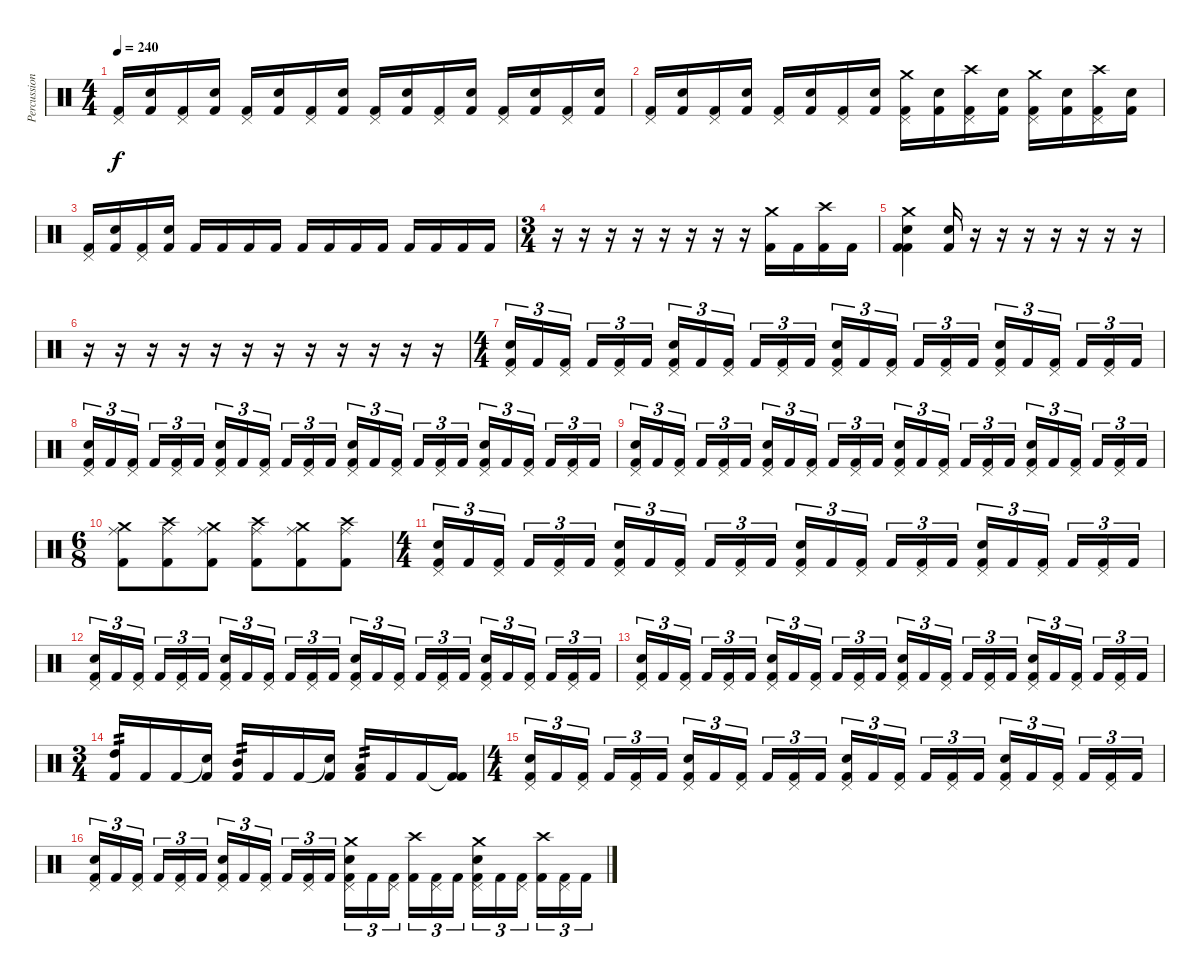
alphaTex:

\track ("Percussions" "Percussion") {instrument percussion}
\staff {score}
\articulation defaults
\ts (4 4)
\tempo 240
\clef neutral
\ks c
("Pedal Hi-Hat (hit)" "Kick (hit) 2").16{dy f} ("Snare (hit) 2" "Kick (hit) 2").16 ("Pedal Hi-Hat (hit)" "Kick (hit) 2").16 ("Snare (hit) 2" "Kick (hit) 2").16 ("Pedal Hi-Hat (hit)" "Kick (hit) 2").16 ("Snare (hit) 2" "Kick (hit) 2").16 ("Pedal Hi-Hat (hit)" "Kick (hit) 2").16 ("Snare (hit) 2" "Kick (hit) 2").16 ("Pedal Hi-Hat (hit)" "Kick (hit) 2").16 ("Snare (hit) 2" "Kick (hit) 2").16 ("Pedal Hi-Hat (hit)" "Kick (hit) 2").16 ("Snare (hit) 2" "Kick (hit) 2").16 ("Pedal Hi-Hat (hit)" "Kick (hit) 2").16 ("Snare (hit) 2" "Kick (hit) 2").16 ("Pedal Hi-Hat (hit)" "Kick (hit) 2").16 ("Snare (hit) 2" "Kick (hit) 2").16 |
("Pedal Hi-Hat (hit)" "Kick (hit) 2").16 ("Snare (hit) 2" "Kick (hit) 2").16 ("Pedal Hi-Hat (hit)" "Kick (hit) 2").16 ("Snare (hit) 2" "Kick (hit) 2").16 ("Pedal Hi-Hat (hit)" "Kick (hit) 2").16 ("Snare (hit) 2" "Kick (hit) 2").16 ("Pedal Hi-Hat (hit)" "Kick (hit) 2").16 ("Snare (hit) 2" "Kick (hit) 2").16 ("Crash medium (hit)" "Pedal Hi-Hat (hit)" "Kick (hit) 2").16 ("Snare (hit) 2" "Kick (hit) 2").16 ("Crash high (hit)" "Pedal Hi-Hat (hit)" "Kick (hit) 2").16 ("Snare (hit) 2" "Kick (hit) 2").16 ("Crash medium (hit)" "Pedal Hi-Hat (hit)" "Kick (hit) 2").16 ("Snare (hit) 2" "Kick (hit) 2").16 ("Crash high (hit)" "Pedal Hi-Hat (hit)" "Kick (hit) 2").16 ("Snare (hit) 2" "Kick (hit) 2").16 |
("Pedal Hi-Hat (hit)" "Kick (hit) 2").16 ("Snare (hit) 2" "Kick (hit) 2").16 ("Pedal Hi-Hat (hit)" "Kick (hit) 2").16 ("Snare (hit) 2" "Kick (hit) 2").16 "Kick (hit) 2".16 "Kick (hit) 2".16 "Kick (hit) 2".16 "Kick (hit) 2".16 "Kick (hit) 2".16 "Kick (hit) 2".16 "Kick (hit) 2".16 "Kick (hit) 2".16 "Kick (hit) 2".16 "Kick (hit) 2".16 "Kick (hit) 2".16 "Kick (hit) 2".16 |
\ts (3 4)
r.16 r.16 r.16 r.16 r.16 r.16 r.16 r.16 ("Crash medium (hit)" "Kick (hit) 2").16 "Kick (hit) 2".16 ("Crash high (hit)" "Kick (hit) 2").16 "Kick (hit) 2".16 |
("Crash medium (hit)" "Snare (hit) 2" "Kick (hit) 2" "Kick (hit) 2").4 ("Snare (hit) 2" "Kick (hit) 2").16 r.16 r.16 r.16 r.16 r.16 r.16 r.16 |
r.16 r.16 r.16 r.16 r.16 r.16 r.16 r.16 r.16 r.16 r.16 r.16 |
\ts (4 4)
("Snare (hit) 2" "Pedal Hi-Hat (hit)" "Kick (hit) 2").16{tu (3 2)} "Kick (hit) 2".16{tu (3 2)} ("Pedal Hi-Hat (hit)" "Kick (hit) 2").16{tu (3 2)} "Kick (hit) 2".16{tu (3 2)} ("Pedal Hi-Hat (hit)" "Kick (hit) 2").16{tu (3 2)} "Kick (hit) 2".16{tu (3 2)} ("Snare (hit) 2" "Pedal Hi-Hat (hit)" "Kick (hit) 2").16{tu (3 2)} "Kick (hit) 2".16{tu (3 2)} ("Pedal Hi-Hat (hit)" "Kick (hit) 2").16{tu (3 2)} "Kick (hit) 2".16{tu (3 2)} ("Pedal Hi-Hat (hit)" "Kick (hit) 2").16{tu (3 2)} "Kick (hit) 2".16{tu (3 2)} ("Snare (hit) 2" "Pedal Hi-Hat (hit)" "Kick (hit) 2").16{tu (3 2)} "Kick (hit) 2".16{tu (3 2)} ("Pedal Hi-Hat (hit)" "Kick (hit) 2").16{tu (3 2)} "Kick (hit) 2".16{tu (3 2)} ("Pedal Hi-Hat (hit)" "Kick (hit) 2").16{tu (3 2)} "Kick (hit) 2".16{tu (3 2)} ("Snare (hit) 2" "Pedal Hi-Hat (hit)" "Kick (hit) 2").16{tu (3 2)} "Kick (hit) 2".16{tu (3 2)} ("Pedal Hi-Hat (hit)" "Kick (hit) 2").16{tu (3 2)} "Kick (hit) 2".16{tu (3 2)} ("Pedal Hi-Hat (hit)" "Kick (hit) 2").16{tu (3 2)} "Kick (hit) 2".16{tu (3 2)} |
("Snare (hit) 2" "Pedal Hi-Hat (hit)" "Kick (hit) 2").16{tu (3 2)} "Kick (hit) 2".16{tu (3 2)} ("Pedal Hi-Hat (hit)" "Kick (hit) 2").16{tu (3 2)} "Kick (hit) 2".16{tu (3 2)} ("Pedal Hi-Hat (hit)" "Kick (hit) 2").16{tu (3 2)} "Kick (hit) 2".16{tu (3 2)} ("Snare (hit) 2" "Pedal Hi-Hat (hit)" "Kick (hit) 2").16{tu (3 2)} "Kick (hit) 2".16{tu (3 2)} ("Pedal Hi-Hat (hit)" "Kick (hit) 2").16{tu (3 2)} "Kick (hit) 2".16{tu (3 2)} ("Pedal Hi-Hat (hit)" "Kick (hit) 2").16{tu (3 2)} "Kick (hit) 2".16{tu (3 2)} ("Snare (hit) 2" "Pedal Hi-Hat (hit)" "Kick (hit) 2").16{tu (3 2)} "Kick (hit) 2".16{tu (3 2)} ("Pedal Hi-Hat (hit)" "Kick (hit) 2").16{tu (3 2)} "Kick (hit) 2".16{tu (3 2)} ("Pedal Hi-Hat (hit)" "Kick (hit) 2").16{tu (3 2)} "Kick (hit) 2".16{tu (3 2)} ("Snare (hit) 2" "Pedal Hi-Hat (hit)" "Kick (hit) 2").16{tu (3 2)} "Kick (hit) 2".16{tu (3 2)} ("Pedal Hi-Hat (hit)" "Kick (hit) 2").16{tu (3 2)} "Kick (hit) 2".16{tu (3 2)} ("Pedal Hi-Hat (hit)" "Kick (hit) 2").16{tu (3 2)} "Kick (hit) 2".16{tu (3 2)} |
("Snare (hit) 2" "Pedal Hi-Hat (hit)" "Kick (hit) 2").16{tu (3 2)} "Kick (hit) 2".16{tu (3 2)} ("Pedal Hi-Hat (hit)" "Kick (hit) 2").16{tu (3 2)} "Kick (hit) 2".16{tu (3 2)} ("Pedal Hi-Hat (hit)" "Kick (hit) 2").16{tu (3 2)} "Kick (hit) 2".16{tu (3 2)} ("Snare (hit) 2" "Pedal Hi-Hat (hit)" "Kick (hit) 2").16{tu (3 2)} "Kick (hit) 2".16{tu (3 2)} ("Pedal Hi-Hat (hit)" "Kick (hit) 2").16{tu (3 2)} "Kick (hit) 2".16{tu (3 2)} ("Pedal Hi-Hat (hit)" "Kick (hit) 2").16{tu (3 2)} "Kick (hit) 2".16{tu (3 2)} ("Snare (hit) 2" "Pedal Hi-Hat (hit)" "Kick (hit) 2").16{tu (3 2)} "Kick (hit) 2".16{tu (3 2)} ("Pedal Hi-Hat (hit)" "Kick (hit) 2").16{tu (3 2)} "Kick (hit) 2".16{tu (3 2)} ("Pedal Hi-Hat (hit)" "Kick (hit) 2").16{tu (3 2)} "Kick (hit) 2".16{tu (3 2)} ("Snare (hit) 2" "Pedal Hi-Hat (hit)" "Kick (hit) 2").16{tu (3 2)} "Kick (hit) 2".16{tu (3 2)} ("Pedal Hi-Hat (hit)" "Kick (hit) 2").16{tu (3 2)} "Kick (hit) 2".16{tu (3 2)} ("Pedal Hi-Hat (hit)" "Kick (hit) 2").16{tu (3 2)} "Kick (hit) 2".16{tu (3 2)} |
\ts (6 8)
("Ride (middle)" "Crash medium (hit)" "Kick (hit) 2").8 ("Ride (middle)" "Crash high (hit)" "Kick (hit) 2").8 ("Ride (middle)" "Crash medium (hit)" "Kick (hit) 2").8 ("Ride (middle)" "Crash high (hit)" "Kick (hit) 2").8 ("Ride (middle)" "Crash medium (hit)" "Kick (hit) 2").8 ("Ride (middle)" "Crash high (hit)" "Kick (hit) 2").8 |
\ts (4 4)
("Snare (hit) 2" "Pedal Hi-Hat (hit)" "Kick (hit) 2").16{tu (3 2)} "Kick (hit) 2".16{tu (3 2)} ("Pedal Hi-Hat (hit)" "Kick (hit) 2").16{tu (3 2)} "Kick (hit) 2".16{tu (3 2)} ("Pedal Hi-Hat (hit)" "Kick (hit) 2").16{tu (3 2)} "Kick (hit) 2".16{tu (3 2)} ("Snare (hit) 2" "Pedal Hi-Hat (hit)" "Kick (hit) 2").16{tu (3 2)} "Kick (hit) 2".16{tu (3 2)} ("Pedal Hi-Hat (hit)" "Kick (hit) 2").16{tu (3 2)} "Kick (hit) 2".16{tu (3 2)} ("Pedal Hi-Hat (hit)" "Kick (hit) 2").16{tu (3 2)} "Kick (hit) 2".16{tu (3 2)} ("Snare (hit) 2" "Pedal Hi-Hat (hit)" "Kick (hit) 2").16{tu (3 2)} "Kick (hit) 2".16{tu (3 2)} ("Pedal Hi-Hat (hit)" "Kick (hit) 2").16{tu (3 2)} "Kick (hit) 2".16{tu (3 2)} ("Pedal Hi-Hat (hit)" "Kick (hit) 2").16{tu (3 2)} "Kick (hit) 2".16{tu (3 2)} ("Snare (hit) 2" "Pedal Hi-Hat (hit)" "Kick (hit) 2").16{tu (3 2)} "Kick (hit) 2".16{tu (3 2)} ("Pedal Hi-Hat (hit)" "Kick (hit) 2").16{tu (3 2)} "Kick (hit) 2".16{tu (3 2)} ("Pedal Hi-Hat (hit)" "Kick (hit) 2").16{tu (3 2)} "Kick (hit) 2".16{tu (3 2)} |
("Snare (hit) 2" "Pedal Hi-Hat (hit)" "Kick (hit) 2").16{tu (3 2)} "Kick (hit) 2".16{tu (3 2)} ("Pedal Hi-Hat (hit)" "Kick (hit) 2").16{tu (3 2)} "Kick (hit) 2".16{tu (3 2)} ("Pedal Hi-Hat (hit)" "Kick (hit) 2").16{tu (3 2)} "Kick (hit) 2".16{tu (3 2)} ("Snare (hit) 2" "Pedal Hi-Hat (hit)" "Kick (hit) 2").16{tu (3 2)} "Kick (hit) 2".16{tu (3 2)} ("Pedal Hi-Hat (hit)" "Kick (hit) 2").16{tu (3 2)} "Kick (hit) 2".16{tu (3 2)} ("Pedal Hi-Hat (hit)" "Kick (hit) 2").16{tu (3 2)} "Kick (hit) 2".16{tu (3 2)} ("Snare (hit) 2" "Pedal Hi-Hat (hit)" "Kick (hit) 2").16{tu (3 2)} "Kick (hit) 2".16{tu (3 2)} ("Pedal Hi-Hat (hit)" "Kick (hit) 2").16{tu (3 2)} "Kick (hit) 2".16{tu (3 2)} ("Pedal Hi-Hat (hit)" "Kick (hit) 2").16{tu (3 2)} "Kick (hit) 2".16{tu (3 2)} ("Snare (hit) 2" "Pedal Hi-Hat (hit)" "Kick (hit) 2").16{tu (3 2)} "Kick (hit) 2".16{tu (3 2)} ("Pedal Hi-Hat (hit)" "Kick (hit) 2").16{tu (3 2)} "Kick (hit) 2".16{tu (3 2)} ("Pedal Hi-Hat (hit)" "Kick (hit) 2").16{tu (3 2)} "Kick (hit) 2".16{tu (3 2)} |
("Snare (hit) 2" "Pedal Hi-Hat (hit)" "Kick (hit) 2").16{tu (3 2)} "Kick (hit) 2".16{tu (3 2)} ("Pedal Hi-Hat (hit)" "Kick (hit) 2").16{tu (3 2)} "Kick (hit) 2".16{tu (3 2)} ("Pedal Hi-Hat (hit)" "Kick (hit) 2").16{tu (3 2)} "Kick (hit) 2".16{tu (3 2)} ("Snare (hit) 2" "Pedal Hi-Hat (hit)" "Kick (hit) 2").16{tu (3 2)} "Kick (hit) 2".16{tu (3 2)} ("Pedal Hi-Hat (hit)" "Kick (hit) 2").16{tu (3 2)} "Kick (hit) 2".16{tu (3 2)} ("Pedal Hi-Hat (hit)" "Kick (hit) 2").16{tu (3 2)} "Kick (hit) 2".16{tu (3 2)} ("Snare (hit) 2" "Pedal Hi-Hat (hit)" "Kick (hit) 2").16{tu (3 2)} "Kick (hit) 2".16{tu (3 2)} ("Pedal Hi-Hat (hit)" "Kick (hit) 2").16{tu (3 2)} "Kick (hit) 2".16{tu (3 2)} ("Pedal Hi-Hat (hit)" "Kick (hit) 2").16{tu (3 2)} "Kick (hit) 2".16{tu (3 2)} ("Snare (hit) 2" "Pedal Hi-Hat (hit)" "Kick (hit) 2").16{tu (3 2)} "Kick (hit) 2".16{tu (3 2)} ("Pedal Hi-Hat (hit)" "Kick (hit) 2").16{tu (3 2)} "Kick (hit) 2".16{tu (3 2)} ("Pedal Hi-Hat (hit)" "Kick (hit) 2").16{tu (3 2)} "Kick (hit) 2".16{tu (3 2)} |
\ts (3 4)
("High Tom (hit)" "Kick (hit) 2").16{tp 2} "Kick (hit) 2".16 "Kick (hit) 2".16 ("Snare (hit)"{t} "Kick (hit) 2").16 ("Mid Tom (hit)" "Kick (hit) 2").16{tp 2} "Kick (hit) 2".16 "Kick (hit) 2".16 ("Snare (hit)"{t} "Kick (hit) 2").16 ("Low Tom (hit)" "Kick (hit) 2").16{tp 2} "Kick (hit) 2".16 "Kick (hit) 2".16 ("Kick (hit) 2"{t} "Kick (hit) 2").16 |
\ts (4 4)
("Snare (hit) 2" "Pedal Hi-Hat (hit)" "Kick (hit) 2").16{tu (3 2)} "Kick (hit) 2".16{tu (3 2)} ("Pedal Hi-Hat (hit)" "Kick (hit) 2").16{tu (3 2)} "Kick (hit) 2".16{tu (3 2)} ("Pedal Hi-Hat (hit)" "Kick (hit) 2").16{tu (3 2)} "Kick (hit) 2".16{tu (3 2)} ("Snare (hit) 2" "Pedal Hi-Hat (hit)" "Kick (hit) 2").16{tu (3 2)} "Kick (hit) 2".16{tu (3 2)} ("Pedal Hi-Hat (hit)" "Kick (hit) 2").16{tu (3 2)} "Kick (hit) 2".16{tu (3 2)} ("Pedal Hi-Hat (hit)" "Kick (hit) 2").16{tu (3 2)} "Kick (hit) 2".16{tu (3 2)} ("Snare (hit) 2" "Pedal Hi-Hat (hit)" "Kick (hit) 2").16{tu (3 2)} "Kick (hit) 2".16{tu (3 2)} ("Pedal Hi-Hat (hit)" "Kick (hit) 2").16{tu (3 2)} "Kick (hit) 2".16{tu (3 2)} ("Pedal Hi-Hat (hit)" "Kick (hit) 2").16{tu (3 2)} "Kick (hit) 2".16{tu (3 2)} ("Snare (hit) 2" "Pedal Hi-Hat (hit)" "Kick (hit) 2").16{tu (3 2)} "Kick (hit) 2".16{tu (3 2)} ("Pedal Hi-Hat (hit)" "Kick (hit) 2").16{tu (3 2)} "Kick (hit) 2".16{tu (3 2)} ("Pedal Hi-Hat (hit)" "Kick (hit) 2").16{tu (3 2)} "Kick (hit) 2".16{tu (3 2)} |
("Snare (hit) 2" "Pedal Hi-Hat (hit)" "Kick (hit) 2").16{tu (3 2)} "Kick (hit) 2".16{tu (3 2)} ("Pedal Hi-Hat (hit)" "Kick (hit) 2").16{tu (3 2)} "Kick (hit) 2".16{tu (3 2)} ("Pedal Hi-Hat (hit)" "Kick (hit) 2").16{tu (3 2)} "Kick (hit) 2".16{tu (3 2)} ("Snare (hit) 2" "Pedal Hi-Hat (hit)" "Kick (hit) 2").16{tu (3 2)} "Kick (hit) 2".16{tu (3 2)} ("Pedal Hi-Hat (hit)" "Kick (hit) 2").16{tu (3 2)} "Kick (hit) 2".16{tu (3 2)} ("Pedal Hi-Hat (hit)" "Kick (hit) 2").16{tu (3 2)} "Kick (hit) 2".16{tu (3 2)} ("Crash medium (hit)" "Snare (hit) 2" "Pedal Hi-Hat (hit)" "Kick (hit) 2").16{tu (3 2)} "Kick (hit) 2".16{tu (3 2)} ("Pedal Hi-Hat (hit)" "Kick (hit) 2").16{tu (3 2)} ("Crash high (hit)" "Kick (hit) 2").16{tu (3 2)} ("Pedal Hi-Hat (hit)" "Kick (hit) 2").16{tu (3 2)} "Kick (hit) 2".16{tu (3 2)} ("Crash medium (hit)" "Snare (hit) 2" "Pedal Hi-Hat (hit)" "Kick (hit) 2").16{tu (3 2)} "Kick (hit) 2".16{tu (3 2)} ("Pedal Hi-Hat (hit)" "Kick (hit) 2").16{tu (3 2)} ("Crash high (hit)" "Kick (hit) 2").16{tu (3 2)} ("Pedal Hi-Hat (hit)" "Kick (hit) 2").16{tu (3 2)} "Kick (hit) 2".16{tu (3 2)}
